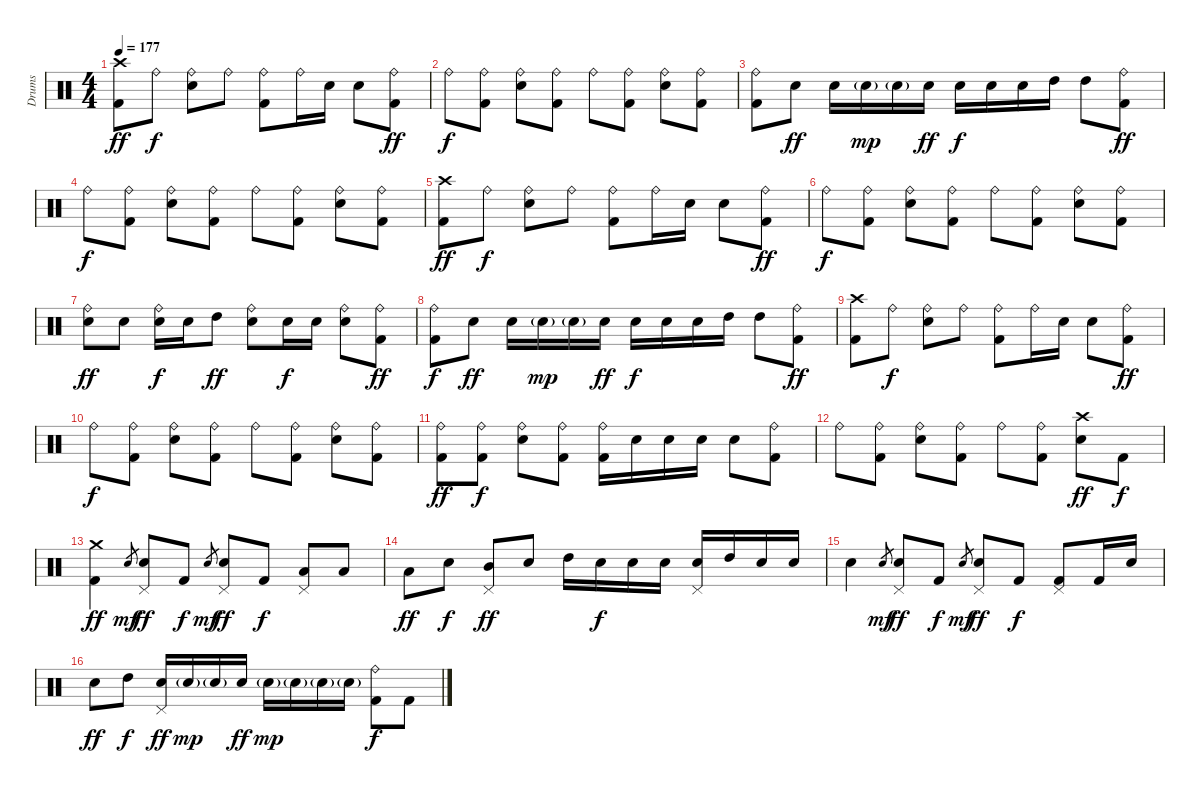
\track ("Drums" "Drums") {instrument percussion}
\staff {score}
\articulation defaults
\ts (4 4)
\tempo 177
\clef neutral
\ks c
("Crash high (hit)" "Kick (hit) 2").8{dy ff} "Ride (bell)".8{dy f} ("Ride (bell)" "Electric Snare (hit)").8 "Ride (bell)".8 ("Ride (bell)" "Kick (hit) 2").8 "Ride (bell)".16 "Electric Snare (hit)".16 "Electric Snare (hit)".8 ("Ride (bell)" "Kick (hit) 2").8{dy ff} |
"Ride (bell)".8{dy f} ("Ride (bell)" "Kick (hit) 2").8 ("Ride (bell)" "Electric Snare (hit)").8 ("Ride (bell)" "Kick (hit) 2").8 "Ride (bell)".8 ("Ride (bell)" "Kick (hit) 2").8 ("Ride (bell)" "Electric Snare (hit)").8 ("Ride (bell)" "Kick (hit) 2").8 |
("Ride (bell)" "Kick (hit) 2").8 "Electric Snare (hit)".8{dy ff} "Electric Snare (hit)".16 "Electric Snare (hit)"{g}.16{dy mp} "Electric Snare (hit)"{g}.16 "Electric Snare (hit)".16{dy ff} "Electric Snare (hit)".16{dy f} "Electric Snare (hit)".16 "Electric Snare (hit)".16 "High Tom (hit)".16 "High Tom (hit)".8 ("Ride (bell)" "Kick (hit) 2").8{dy ff} |
"Ride (bell)".8{dy f} ("Ride (bell)" "Kick (hit) 2").8 ("Ride (bell)" "Electric Snare (hit)").8 ("Ride (bell)" "Kick (hit) 2").8 "Ride (bell)".8 ("Ride (bell)" "Kick (hit) 2").8 ("Ride (bell)" "Electric Snare (hit)").8 ("Ride (bell)" "Kick (hit) 2").8 |
("Crash high (hit)" "Kick (hit) 2").8{dy ff} "Ride (bell)".8{dy f} ("Ride (bell)" "Electric Snare (hit)").8 "Ride (bell)".8 ("Ride (bell)" "Kick (hit) 2").8 "Ride (bell)".16 "Electric Snare (hit)".16 "Electric Snare (hit)".8 ("Ride (bell)" "Kick (hit) 2").8{dy ff} |
"Ride (bell)".8{dy f} ("Ride (bell)" "Kick (hit) 2").8 ("Ride (bell)" "Electric Snare (hit)").8 ("Ride (bell)" "Kick (hit) 2").8 "Ride (bell)".8 ("Ride (bell)" "Kick (hit) 2").8 ("Ride (bell)" "Electric Snare (hit)").8 ("Ride (bell)" "Kick (hit) 2").8 |
("Ride (bell)" "Electric Snare (hit)").8{dy ff} "Electric Snare (hit)".8 ("Ride (bell)" "Electric Snare (hit)").16{dy f} "Electric Snare (hit)".16 "High Tom (hit)".8{dy ff} ("Ride (bell)" "Electric Snare (hit)").8 "Electric Snare (hit)".16{dy f} "Electric Snare (hit)".16 ("Ride (bell)" "Electric Snare (hit)").8 ("Ride (bell)" "Kick (hit) 2").8{dy ff} |
("Ride (bell)" "Kick (hit) 2").8{dy f} "Electric Snare (hit)".8{dy ff} "Electric Snare (hit)".16 "Electric Snare (hit)"{g}.16{dy mp} "Electric Snare (hit)"{g}.16 "Electric Snare (hit)".16{dy ff} "Electric Snare (hit)".16{dy f} "Electric Snare (hit)".16 "Electric Snare (hit)".16 "High Tom (hit)".16 "High Tom (hit)".8 ("Ride (bell)" "Kick (hit) 2").8{dy ff} |
("Crash high (hit)" "Kick (hit) 2").8 "Ride (bell)".8{dy f} ("Ride (bell)" "Electric Snare (hit)").8 "Ride (bell)".8 ("Ride (bell)" "Kick (hit) 2").8 "Ride (bell)".16 "Electric Snare (hit)".16 "Electric Snare (hit)".8 ("Ride (bell)" "Kick (hit) 2").8{dy ff} |
"Ride (bell)".8{dy f} ("Ride (bell)" "Kick (hit) 2").8 ("Ride (bell)" "Electric Snare (hit)").8 ("Ride (bell)" "Kick (hit) 2").8 "Ride (bell)".8 ("Ride (bell)" "Kick (hit) 2").8 ("Ride (bell)" "Electric Snare (hit)").8 ("Ride (bell)" "Kick (hit) 2").8 |
("Ride (bell)" "Kick (hit) 2").8{dy ff} ("Ride (bell)" "Kick (hit) 2").8{dy f} ("Ride (bell)" "Electric Snare (hit)").8 ("Ride (bell)" "Kick (hit) 2").8 ("Ride (bell)" "Kick (hit) 2").16 "Electric Snare (hit)".16 "Electric Snare (hit)".16 "Electric Snare (hit)".16 "Electric Snare (hit)".8 ("Ride (bell)" "Kick (hit) 2").8 |
"Ride (bell)".8 ("Ride (bell)" "Kick (hit) 2").8 ("Ride (bell)" "Electric Snare (hit)").8 ("Ride (bell)" "Kick (hit) 2").8 "Ride (bell)".8 ("Ride (bell)" "Kick (hit) 2").8 ("Crash high (hit)" "Electric Snare (hit)").8{dy ff} "Kick (hit) 2".8{dy f} |
("Crash medium (hit)" "Kick (hit) 2").4{dy ff} "Electric Snare (hit)".8{gr dy mf} ("Electric Snare (hit)" "Pedal Hi-Hat (hit)").8{dy ff} "Kick (hit) 2".8{dy f} "Electric Snare (hit)".8{gr dy mf} ("Electric Snare (hit)" "Pedal Hi-Hat (hit)").8{dy ff} "Kick (hit) 2".8{dy f} ("Low Tom (hit)" "Pedal Hi-Hat (hit)").8 "Low Tom (hit)".8 |
"Low Tom (hit)".8{dy ff} "Electric Snare (hit)".8{dy f} ("Mid Tom (hit)" "Pedal Hi-Hat (hit)").8{dy ff} "Electric Snare (hit)".8 "High Tom (hit)".16 "Electric Snare (hit)".16{dy f} "Electric Snare (hit)".16 "Electric Snare (hit)".16 ("Electric Snare (hit)" "Pedal Hi-Hat (hit)").16 "High Tom (hit)".16 "Electric Snare (hit)".16 "Electric Snare (hit)".16 |
"Electric Snare (hit)".4 "Electric Snare (hit)".8{gr dy mf} ("Electric Snare (hit)" "Pedal Hi-Hat (hit)").8{dy ff} "Kick (hit) 2".8{dy f} "Electric Snare (hit)".8{gr dy mf} ("Electric Snare (hit)" "Pedal Hi-Hat (hit)").8{dy ff} "Kick (hit) 2".8{dy f} ("Kick (hit) 2" "Pedal Hi-Hat (hit)").8 "Kick (hit) 2".16 "Electric Snare (hit)".16 |
"Electric Snare (hit)".8{dy ff} "High Tom (hit)".8{dy f} ("Electric Snare (hit)" "Pedal Hi-Hat (hit)").16{dy ff} "Electric Snare (hit)"{g}.16{dy mp} "Electric Snare (hit)"{g}.16 "Electric Snare (hit)".16{dy ff} "Electric Snare (hit)"{g}.16{dy mp} "Electric Snare (hit)"{g}.16 "Electric Snare (hit)"{g}.16 "Electric Snare (hit)"{g}.16 ("Ride (bell)" "Kick (hit) 2").8{dy f} "Kick (hit) 2".8
